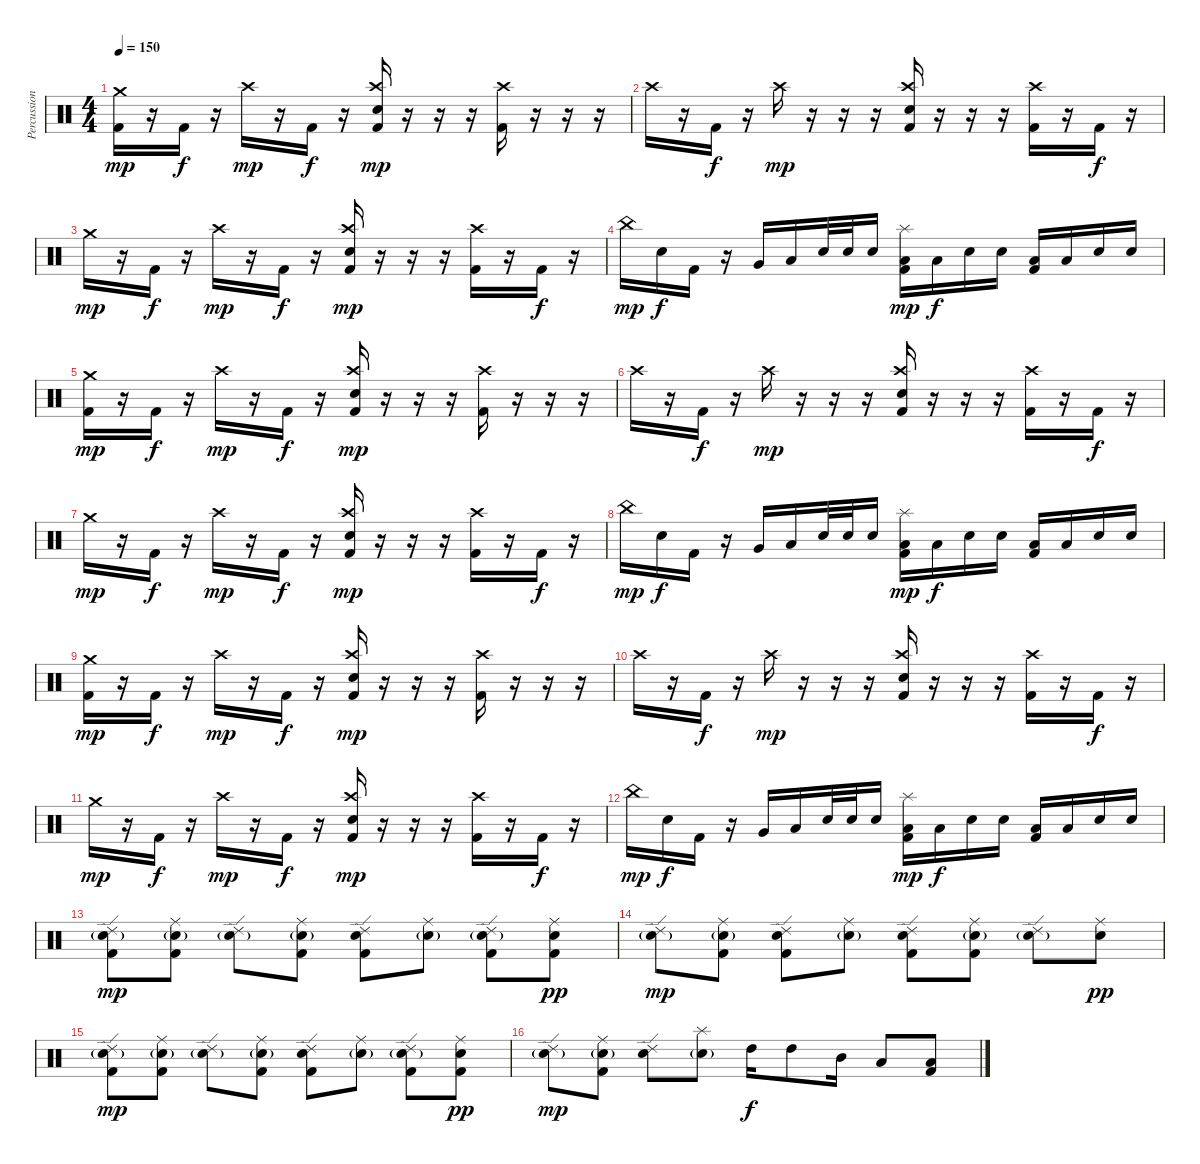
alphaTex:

\track ("Percussion" "Percussion") {instrument percussion}
\staff {score}
\articulation defaults
\ts (4 4)
\tempo 150
\clef neutral
\ks c
("Crash medium (hit)" "Kick (hit) 2").16{dy mp} r.16 "Kick (hit) 2".16{dy f} r.16 "Crash high (hit)".16{dy mp} r.16 "Kick (hit) 2".16{dy f} r.16 ("Crash high (hit)" "Electric Snare (hit)" "Kick (hit) 2").16{dy mp} r.16 r.16 r.16 ("Crash high (hit)" "Kick (hit) 2").16 r.16 r.16 r.16 |
"Crash high (hit)".16 r.16 "Kick (hit) 2".16{dy f} r.16 "Crash high (hit)".16{dy mp} r.16 r.16 r.16 ("Crash high (hit)" "Electric Snare (hit)" "Kick (hit) 2").16 r.16 r.16 r.16 ("Crash high (hit)" "Kick (hit) 2").16 r.16 "Kick (hit) 2".16{dy f} r.16 |
"Crash medium (hit)".16{dy mp} r.16 "Kick (hit) 2".16{dy f} r.16 "Crash high (hit)".16{dy mp} r.16 "Kick (hit) 2".16{dy f} r.16 ("Crash high (hit)" "Electric Snare (hit)" "Kick (hit) 2").16{dy mp} r.16 r.16 r.16 ("Crash high (hit)" "Kick (hit) 2").16 r.16 "Kick (hit) 2".16{dy f} r.16 |
"China (hit)".16{dy mp} "Electric Snare (hit)".16{dy f} "Kick (hit) 2".16 r.16 "Very Low Tom (hit)".16 "Low Floor Tom (hit)".16 "Electric Snare (hit)".32 "Electric Snare (hit)".32 "Electric Snare (hit)".16 ("Splash (hit)" "Low Floor Tom (hit)" "Kick (hit) 2").16{dy mp} "Low Floor Tom (hit)".16{dy f} "Electric Snare (hit)".16 "Electric Snare (hit)".16 ("Low Floor Tom (hit)" "Kick (hit) 2").16 "Low Floor Tom (hit)".16 "Electric Snare (hit)".16 "Electric Snare (hit)".16 |
("Crash medium (hit)" "Kick (hit) 2").16{dy mp} r.16 "Kick (hit) 2".16{dy f} r.16 "Crash high (hit)".16{dy mp} r.16 "Kick (hit) 2".16{dy f} r.16 ("Crash high (hit)" "Electric Snare (hit)" "Kick (hit) 2").16{dy mp} r.16 r.16 r.16 ("Crash high (hit)" "Kick (hit) 2").16 r.16 r.16 r.16 |
"Crash high (hit)".16 r.16 "Kick (hit) 2".16{dy f} r.16 "Crash high (hit)".16{dy mp} r.16 r.16 r.16 ("Crash high (hit)" "Electric Snare (hit)" "Kick (hit) 2").16 r.16 r.16 r.16 ("Crash high (hit)" "Kick (hit) 2").16 r.16 "Kick (hit) 2".16{dy f} r.16 |
"Crash medium (hit)".16{dy mp} r.16 "Kick (hit) 2".16{dy f} r.16 "Crash high (hit)".16{dy mp} r.16 "Kick (hit) 2".16{dy f} r.16 ("Crash high (hit)" "Electric Snare (hit)" "Kick (hit) 2").16{dy mp} r.16 r.16 r.16 ("Crash high (hit)" "Kick (hit) 2").16 r.16 "Kick (hit) 2".16{dy f} r.16 |
"China (hit)".16{dy mp} "Electric Snare (hit)".16{dy f} "Kick (hit) 2".16 r.16 "Very Low Tom (hit)".16 "Low Floor Tom (hit)".16 "Electric Snare (hit)".32 "Electric Snare (hit)".32 "Electric Snare (hit)".16 ("Splash (hit)" "Low Floor Tom (hit)" "Kick (hit) 2").16{dy mp} "Low Floor Tom (hit)".16{dy f} "Electric Snare (hit)".16 "Electric Snare (hit)".16 ("Low Floor Tom (hit)" "Kick (hit) 2").16 "Low Floor Tom (hit)".16 "Electric Snare (hit)".16 "Electric Snare (hit)".16 |
("Crash medium (hit)" "Kick (hit) 2").16{dy mp} r.16 "Kick (hit) 2".16{dy f} r.16 "Crash high (hit)".16{dy mp} r.16 "Kick (hit) 2".16{dy f} r.16 ("Crash high (hit)" "Electric Snare (hit)" "Kick (hit) 2").16{dy mp} r.16 r.16 r.16 ("Crash high (hit)" "Kick (hit) 2").16 r.16 r.16 r.16 |
"Crash high (hit)".16 r.16 "Kick (hit) 2".16{dy f} r.16 "Crash high (hit)".16{dy mp} r.16 r.16 r.16 ("Crash high (hit)" "Electric Snare (hit)" "Kick (hit) 2").16 r.16 r.16 r.16 ("Crash high (hit)" "Kick (hit) 2").16 r.16 "Kick (hit) 2".16{dy f} r.16 |
"Crash medium (hit)".16{dy mp} r.16 "Kick (hit) 2".16{dy f} r.16 "Crash high (hit)".16{dy mp} r.16 "Kick (hit) 2".16{dy f} r.16 ("Crash high (hit)" "Electric Snare (hit)" "Kick (hit) 2").16{dy mp} r.16 r.16 r.16 ("Crash high (hit)" "Kick (hit) 2").16 r.16 "Kick (hit) 2".16{dy f} r.16 |
"China (hit)".16{dy mp} "Electric Snare (hit)".16{dy f} "Kick (hit) 2".16 r.16 "Very Low Tom (hit)".16 "Low Floor Tom (hit)".16 "Electric Snare (hit)".32 "Electric Snare (hit)".32 "Electric Snare (hit)".16 ("Splash (hit)" "Low Floor Tom (hit)" "Kick (hit) 2").16{dy mp} "Low Floor Tom (hit)".16{dy f} "Electric Snare (hit)".16 "Electric Snare (hit)".16 ("Low Floor Tom (hit)" "Kick (hit) 2").16 "Low Floor Tom (hit)".16 "Electric Snare (hit)".16 "Electric Snare (hit)".16 |
("Ride (edge) 2" "Electric Snare (hit)"{g} "Kick (hit) 2").8{dy mp} ("Ride (middle)" "Electric Snare (hit)"{g} "Kick (hit) 2").8 ("Ride (edge) 2" "Electric Snare (hit)"{g}).8 ("Ride (middle)" "Electric Snare (hit)"{g} "Kick (hit) 2").8 ("Ride (edge) 2" "Electric Snare (hit)" "Kick (hit) 2").8 ("Ride (middle)" "Electric Snare (hit)"{g}).8 ("Ride (edge) 2" "Electric Snare (hit)"{g} "Kick (hit) 2").8 ("Ride (middle)" "Electric Snare (hit)" "Kick (hit) 2").8{dy pp} |
("Ride (edge) 2" "Electric Snare (hit)"{g}).8{dy mp} ("Ride (middle)" "Electric Snare (hit)"{g} "Kick (hit) 2").8 ("Ride (edge) 2" "Electric Snare (hit)" "Kick (hit) 2").8 ("Ride (middle)" "Electric Snare (hit)"{g}).8 ("Ride (edge) 2" "Electric Snare (hit)" "Kick (hit) 2").8 ("Ride (middle)" "Electric Snare (hit)"{g} "Kick (hit) 2").8 ("Ride (edge) 2" "Electric Snare (hit)"{g}).8 ("Ride (middle)" "Electric Snare (hit)").8{dy pp} |
("Ride (edge) 2" "Electric Snare (hit)"{g} "Kick (hit) 2").8{dy mp} ("Ride (middle)" "Electric Snare (hit)"{g} "Kick (hit) 2").8 ("Ride (edge) 2" "Electric Snare (hit)"{g}).8 ("Ride (middle)" "Electric Snare (hit)"{g} "Kick (hit) 2").8 ("Ride (edge) 2" "Electric Snare (hit)" "Kick (hit) 2").8 ("Ride (middle)" "Electric Snare (hit)"{g}).8 ("Ride (edge) 2" "Electric Snare (hit)"{g} "Kick (hit) 2").8 ("Ride (middle)" "Electric Snare (hit)" "Kick (hit) 2").8{dy pp} |
("Ride (edge) 2" "Electric Snare (hit)"{g}).8{dy mp} ("Ride (middle)" "Electric Snare (hit)"{g} "Kick (hit) 2").8 ("Ride (edge) 2" "Electric Snare (hit)").8 ("Splash (hit)" "Electric Snare (hit)"{g}).8 "High Tom (hit)".16{dy f} "High Tom (hit)".8 "Mid Tom (hit)".16 "Low Tom (hit)".8 ("Low Floor Tom (hit)" "Kick (hit) 2").8
